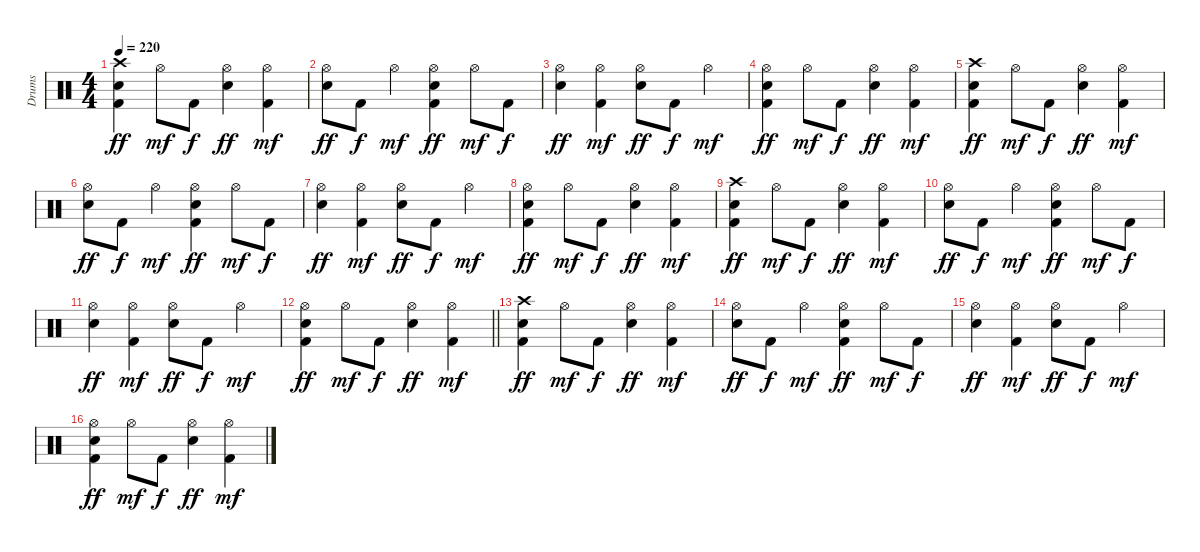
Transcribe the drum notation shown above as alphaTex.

\track ("Drums" "Drums") {instrument percussion}
\staff {score}
\articulation defaults
\ts (4 4)
\tempo 220
\clef neutral
\ks c
("Crash high (hit)" "Snare (hit) 2" "Kick (hit) 2").4{dy ff} "Hi-Hat (open)".8{dy mf} "Kick (hit) 2".8{dy f} ("Hi-Hat (open)" "Snare (hit) 2").4{dy ff} ("Hi-Hat (open)" "Kick (hit) 2").4{dy mf} |
("Hi-Hat (open)" "Snare (hit) 2").8{dy ff} "Kick (hit) 2".8{dy f} "Hi-Hat (open)".4{dy mf} ("Hi-Hat (open)" "Snare (hit) 2" "Kick (hit) 2").4{dy ff} "Hi-Hat (open)".8{dy mf} "Kick (hit) 2".8{dy f} |
("Hi-Hat (open)" "Snare (hit) 2").4{dy ff} ("Hi-Hat (open)" "Kick (hit) 2").4{dy mf} ("Hi-Hat (open)" "Snare (hit) 2").8{dy ff} "Kick (hit) 2".8{dy f} "Hi-Hat (open)".4{dy mf} |
("Hi-Hat (open)" "Snare (hit) 2" "Kick (hit) 2").4{dy ff} "Hi-Hat (open)".8{dy mf} "Kick (hit) 2".8{dy f} ("Hi-Hat (open)" "Snare (hit) 2").4{dy ff} ("Hi-Hat (open)" "Kick (hit) 2").4{dy mf} |
("Crash high (hit)" "Snare (hit) 2" "Kick (hit) 2").4{dy ff} "Hi-Hat (open)".8{dy mf} "Kick (hit) 2".8{dy f} ("Hi-Hat (open)" "Snare (hit) 2").4{dy ff} ("Hi-Hat (open)" "Kick (hit) 2").4{dy mf} |
("Hi-Hat (open)" "Snare (hit) 2").8{dy ff} "Kick (hit) 2".8{dy f} "Hi-Hat (open)".4{dy mf} ("Hi-Hat (open)" "Snare (hit) 2" "Kick (hit) 2").4{dy ff} "Hi-Hat (open)".8{dy mf} "Kick (hit) 2".8{dy f} |
("Hi-Hat (open)" "Snare (hit) 2").4{dy ff} ("Hi-Hat (open)" "Kick (hit) 2").4{dy mf} ("Hi-Hat (open)" "Snare (hit) 2").8{dy ff} "Kick (hit) 2".8{dy f} "Hi-Hat (open)".4{dy mf} |
("Hi-Hat (open)" "Snare (hit) 2" "Kick (hit) 2").4{dy ff} "Hi-Hat (open)".8{dy mf} "Kick (hit) 2".8{dy f} ("Hi-Hat (open)" "Snare (hit) 2").4{dy ff} ("Hi-Hat (open)" "Kick (hit) 2").4{dy mf} |
("Crash high (hit)" "Snare (hit) 2" "Kick (hit) 2").4{dy ff} "Hi-Hat (open)".8{dy mf} "Kick (hit) 2".8{dy f} ("Hi-Hat (open)" "Snare (hit) 2").4{dy ff} ("Hi-Hat (open)" "Kick (hit) 2").4{dy mf} |
("Hi-Hat (open)" "Snare (hit) 2").8{dy ff} "Kick (hit) 2".8{dy f} "Hi-Hat (open)".4{dy mf} ("Hi-Hat (open)" "Snare (hit) 2" "Kick (hit) 2").4{dy ff} "Hi-Hat (open)".8{dy mf} "Kick (hit) 2".8{dy f} |
("Hi-Hat (open)" "Snare (hit) 2").4{dy ff} ("Hi-Hat (open)" "Kick (hit) 2").4{dy mf} ("Hi-Hat (open)" "Snare (hit) 2").8{dy ff} "Kick (hit) 2".8{dy f} "Hi-Hat (open)".4{dy mf} |
\barLineRight lightlight
("Hi-Hat (open)" "Snare (hit) 2" "Kick (hit) 2").4{dy ff} "Hi-Hat (open)".8{dy mf} "Kick (hit) 2".8{dy f} ("Hi-Hat (open)" "Snare (hit) 2").4{dy ff} ("Hi-Hat (open)" "Kick (hit) 2").4{dy mf} |
("Crash high (hit)" "Snare (hit) 2" "Kick (hit) 2").4{dy ff} "Hi-Hat (open)".8{dy mf} "Kick (hit) 2".8{dy f} ("Hi-Hat (open)" "Snare (hit) 2").4{dy ff} ("Hi-Hat (open)" "Kick (hit) 2").4{dy mf} |
("Hi-Hat (open)" "Snare (hit) 2").8{dy ff} "Kick (hit) 2".8{dy f} "Hi-Hat (open)".4{dy mf} ("Hi-Hat (open)" "Snare (hit) 2" "Kick (hit) 2").4{dy ff} "Hi-Hat (open)".8{dy mf} "Kick (hit) 2".8{dy f} |
("Hi-Hat (open)" "Snare (hit) 2").4{dy ff} ("Hi-Hat (open)" "Kick (hit) 2").4{dy mf} ("Hi-Hat (open)" "Snare (hit) 2").8{dy ff} "Kick (hit) 2".8{dy f} "Hi-Hat (open)".4{dy mf} |
("Hi-Hat (open)" "Snare (hit) 2" "Kick (hit) 2").4{dy ff} "Hi-Hat (open)".8{dy mf} "Kick (hit) 2".8{dy f} ("Hi-Hat (open)" "Snare (hit) 2").4{dy ff} ("Hi-Hat (open)" "Kick (hit) 2").4{dy mf}
